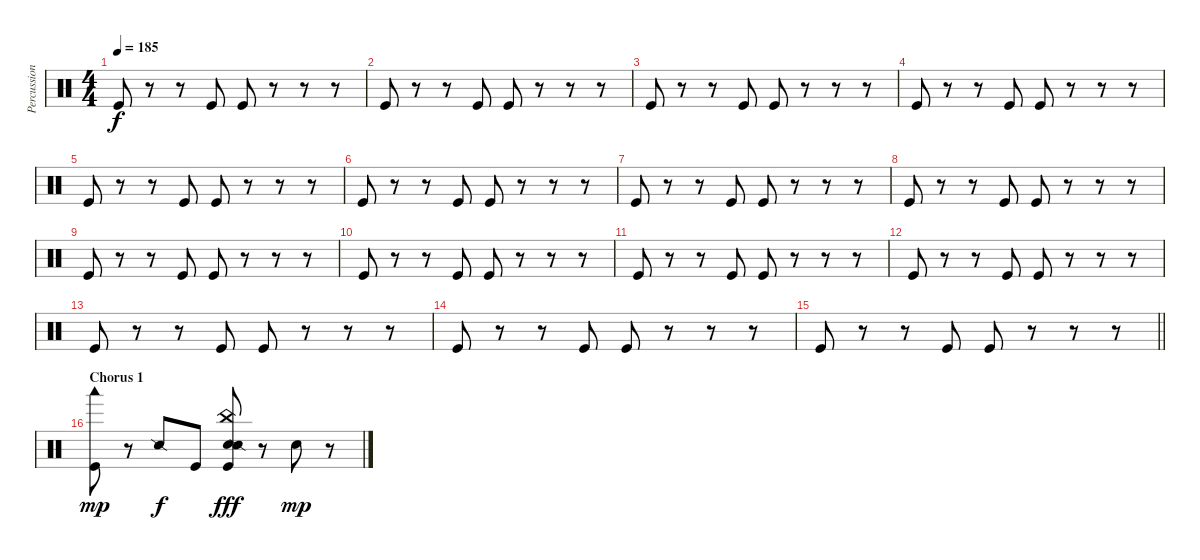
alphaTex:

\track ("Percussion" "Percussion") {instrument percussion}
\staff {score}
\articulation defaults
\ts (4 4)
\tempo 185
\clef neutral
\ks c "Kick (hit)".8{dy f}
r.8 r.8 "Kick (hit)".8 "Kick (hit)".8 r.8 r.8 r.8 |
"Kick (hit)".8 r.8 r.8 "Kick (hit)".8 "Kick (hit)".8 r.8 r.8 r.8 |
"Kick (hit)".8 r.8 r.8 "Kick (hit)".8 "Kick (hit)".8 r.8 r.8 r.8 |
"Kick (hit)".8 r.8 r.8 "Kick (hit)".8 "Kick (hit)".8 r.8 r.8 r.8 |
"Kick (hit)".8 r.8 r.8 "Kick (hit)".8 "Kick (hit)".8 r.8 r.8 r.8 |
"Kick (hit)".8 r.8 r.8 "Kick (hit)".8 "Kick (hit)".8 r.8 r.8 r.8 |
"Kick (hit)".8 r.8 r.8 "Kick (hit)".8 "Kick (hit)".8 r.8 r.8 r.8 |
"Kick (hit)".8 r.8 r.8 "Kick (hit)".8 "Kick (hit)".8 r.8 r.8 r.8 |
"Kick (hit)".8 r.8 r.8 "Kick (hit)".8 "Kick (hit)".8 r.8 r.8 r.8 |
"Kick (hit)".8 r.8 r.8 "Kick (hit)".8 "Kick (hit)".8 r.8 r.8 r.8 |
"Kick (hit)".8 r.8 r.8 "Kick (hit)".8 "Kick (hit)".8 r.8 r.8 r.8 |
"Kick (hit)".8 r.8 r.8 "Kick (hit)".8 "Kick (hit)".8 r.8 r.8 r.8 |
"Kick (hit)".8 r.8 r.8 "Kick (hit)".8 "Kick (hit)".8 r.8 r.8 r.8 |
"Kick (hit)".8 r.8 r.8 "Kick (hit)".8 "Kick (hit)".8 r.8 r.8 r.8 |
\barLineRight lightlight "Kick (hit)".8
r.8 r.8 "Kick (hit)".8 "Kick (hit)".8 r.8 r.8 r.8 |
\section ("" "Chorus 1")
("Woodblock low (hit)" "Kick (hit)").8{dy mp} r.8 "Snare (side stick) 2".8{dy f} "Kick (hit)".8 ("China (hit)" "Snare (hit) 2" "Snare (side stick) 2" "Kick (hit)").8{dy fff} r.8 "Electric Snare (hit)".8{dy mp} r.8
